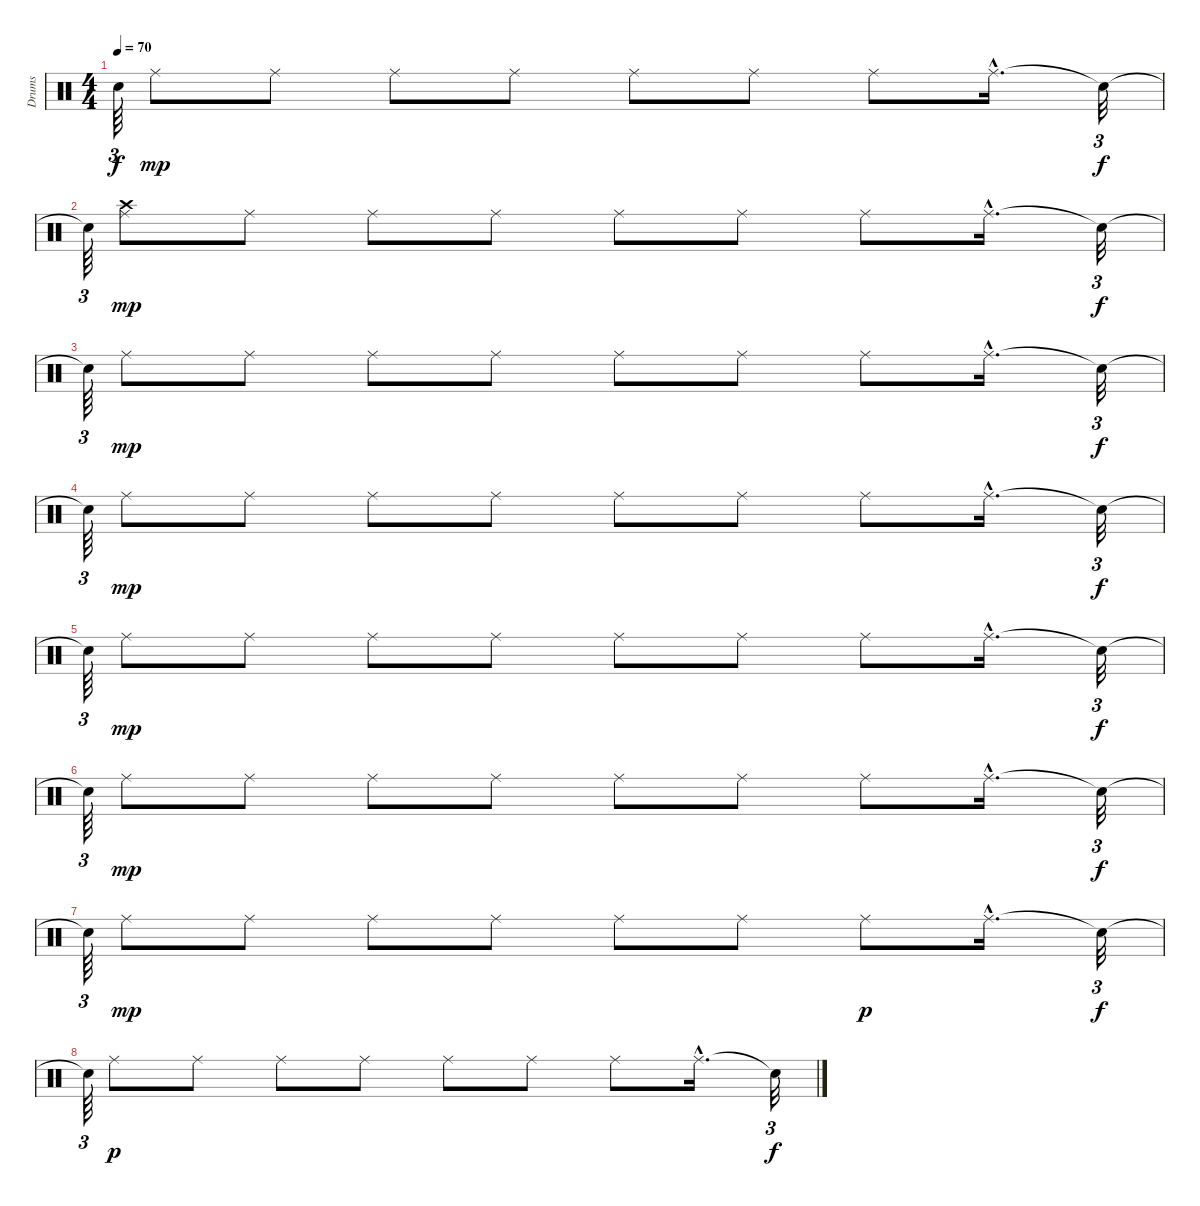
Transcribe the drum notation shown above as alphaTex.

\track ("Drums               " "Drums     ") {instrument percussion}
\staff {score}
\articulation defaults
\ts (4 4)
\tempo 70
\clef neutral
\ks c "Snare (hit)"{t}.64{tu (3 2) dy f} "Ride (middle)".8{dy mp} "Ride (middle)".8 "Ride (middle)".8 "Ride (middle)".8 "Ride (middle)".8 "Ride (middle)".8 "Ride (middle)".8 "Ride (middle)"{hac}.16{d} "Snare (hit)"{t}.32{tu (3 2) dy f}
|
"Snare (hit)"{t}.64{tu (3 2)} ("Crash high (hit)" "Ride (middle)").8{dy mp} "Ride (middle)".8 "Ride (middle)".8 "Ride (middle)".8 "Ride (middle)".8 "Ride (middle)".8 "Ride (middle)".8 "Ride (middle)"{hac}.16{d} "Snare (hit)"{t}.32{tu (3 2) dy f} |
"Snare (hit)"{t}.64{tu (3 2)} "Ride (middle)".8{dy mp} "Ride (middle)".8 "Ride (middle)".8 "Ride (middle)".8 "Ride (middle)".8 "Ride (middle)".8 "Ride (middle)".8 "Ride (middle)"{hac}.16{d} "Snare (hit)"{t}.32{tu (3 2) dy f} |
"Snare (hit)"{t}.64{tu (3 2)} "Ride (middle)".8{dy mp} "Ride (middle)".8 "Ride (middle)".8 "Ride (middle)".8 "Ride (middle)".8 "Ride (middle)".8 "Ride (middle)".8 "Ride (middle)"{hac}.16{d} "Snare (hit)"{t}.32{tu (3 2) dy f} |
"Snare (hit)"{t}.64{tu (3 2)} "Ride (middle)".8{dy mp} "Ride (middle)".8 "Ride (middle)".8 "Ride (middle)".8 "Ride (middle)".8 "Ride (middle)".8 "Ride (middle)".8 "Ride (middle)"{hac}.16{d} "Snare (hit)"{t}.32{tu (3 2) dy f} |
"Snare (hit)"{t}.64{tu (3 2)} "Ride (middle)".8{dy mp} "Ride (middle)".8 "Ride (middle)".8 "Ride (middle)".8 "Ride (middle)".8 "Ride (middle)".8 "Ride (middle)".8 "Ride (middle)"{hac}.16{d} "Snare (hit)"{t}.32{tu (3 2) dy f} |
"Snare (hit)"{t}.64{tu (3 2)} "Ride (middle)".8{dy mp} "Ride (middle)".8 "Ride (middle)".8 "Ride (middle)".8 "Ride (middle)".8 "Ride (middle)".8 "Ride (middle)".8{dy p} "Ride (middle)"{hac}.16{d} "Snare (hit)"{t}.32{tu (3 2) dy f} |
"Snare (hit)"{t}.64{tu (3 2)} "Ride (middle)".8{dy p} "Ride (middle)".8 "Ride (middle)".8 "Ride (middle)".8 "Ride (middle)".8 "Ride (middle)".8 "Ride (middle)".8 "Ride (middle)"{hac}.16{d} "Snare (hit)"{t}.32{tu (3 2) dy f}
